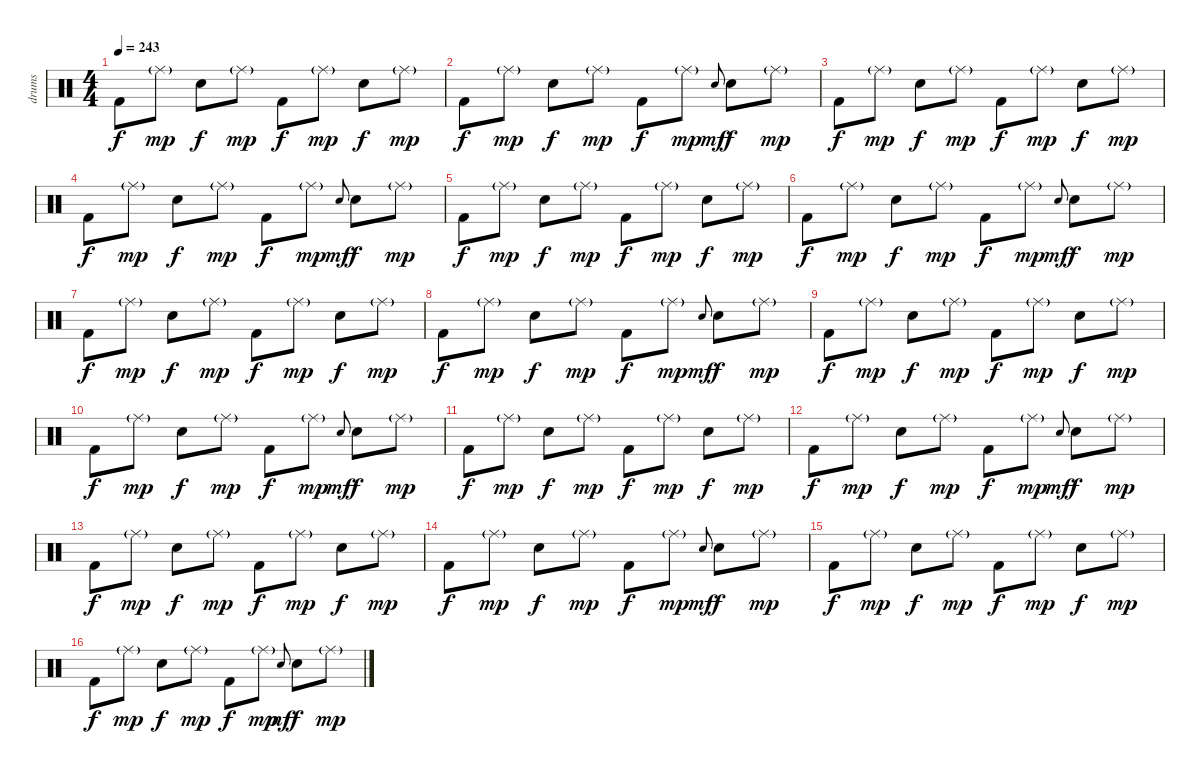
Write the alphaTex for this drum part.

\track ("drums" "drums") {instrument percussion}
\staff {score}
\articulation defaults
\ts (4 4)
\tempo 243
\clef neutral
\ks c "Kick (hit) 2".8{dy f} "Ride (middle)"{g}.8{dy mp} "Electric Snare (hit)".8{dy f} "Ride (middle)"{g}.8{dy mp} "Kick (hit) 2".8{dy f} "Ride (middle)"{g}.8{dy mp} "Electric Snare (hit)".8{dy f} "Ride (middle)"{g}.8{dy mp}
|
"Kick (hit) 2".8{dy f} "Ride (middle)"{g}.8{dy mp} "Electric Snare (hit)".8{dy f} "Ride (middle)"{g}.8{dy mp} "Kick (hit) 2".8{dy f} "Ride (middle)"{g}.8{dy mp} "Electric Snare (hit)"{x}.8{gr onbeat dy mf} "Electric Snare (hit)".8{dy f} "Ride (middle)"{g}.8{dy mp} |
"Kick (hit) 2".8{dy f} "Ride (middle)"{g}.8{dy mp} "Electric Snare (hit)".8{dy f} "Ride (middle)"{g}.8{dy mp} "Kick (hit) 2".8{dy f} "Ride (middle)"{g}.8{dy mp} "Electric Snare (hit)".8{dy f} "Ride (middle)"{g}.8{dy mp} |
"Kick (hit) 2".8{dy f} "Ride (middle)"{g}.8{dy mp} "Electric Snare (hit)".8{dy f} "Ride (middle)"{g}.8{dy mp} "Kick (hit) 2".8{dy f} "Ride (middle)"{g}.8{dy mp} "Electric Snare (hit)"{x}.8{gr onbeat dy mf} "Electric Snare (hit)".8{dy f} "Ride (middle)"{g}.8{dy mp} |
"Kick (hit) 2".8{dy f} "Ride (middle)"{g}.8{dy mp} "Electric Snare (hit)".8{dy f} "Ride (middle)"{g}.8{dy mp} "Kick (hit) 2".8{dy f} "Ride (middle)"{g}.8{dy mp} "Electric Snare (hit)".8{dy f} "Ride (middle)"{g}.8{dy mp} |
"Kick (hit) 2".8{dy f} "Ride (middle)"{g}.8{dy mp} "Electric Snare (hit)".8{dy f} "Ride (middle)"{g}.8{dy mp} "Kick (hit) 2".8{dy f} "Ride (middle)"{g}.8{dy mp} "Electric Snare (hit)"{x}.8{gr onbeat dy mf} "Electric Snare (hit)".8{dy f} "Ride (middle)"{g}.8{dy mp} |
"Kick (hit) 2".8{dy f} "Ride (middle)"{g}.8{dy mp} "Electric Snare (hit)".8{dy f} "Ride (middle)"{g}.8{dy mp} "Kick (hit) 2".8{dy f} "Ride (middle)"{g}.8{dy mp} "Electric Snare (hit)".8{dy f} "Ride (middle)"{g}.8{dy mp} |
"Kick (hit) 2".8{dy f} "Ride (middle)"{g}.8{dy mp} "Electric Snare (hit)".8{dy f} "Ride (middle)"{g}.8{dy mp} "Kick (hit) 2".8{dy f} "Ride (middle)"{g}.8{dy mp} "Electric Snare (hit)"{x}.8{gr onbeat dy mf} "Electric Snare (hit)".8{dy f} "Ride (middle)"{g}.8{dy mp} |
"Kick (hit) 2".8{dy f} "Ride (middle)"{g}.8{dy mp} "Electric Snare (hit)".8{dy f} "Ride (middle)"{g}.8{dy mp} "Kick (hit) 2".8{dy f} "Ride (middle)"{g}.8{dy mp} "Electric Snare (hit)".8{dy f} "Ride (middle)"{g}.8{dy mp} |
"Kick (hit) 2".8{dy f} "Ride (middle)"{g}.8{dy mp} "Electric Snare (hit)".8{dy f} "Ride (middle)"{g}.8{dy mp} "Kick (hit) 2".8{dy f} "Ride (middle)"{g}.8{dy mp} "Electric Snare (hit)"{x}.8{gr onbeat dy mf} "Electric Snare (hit)".8{dy f} "Ride (middle)"{g}.8{dy mp} |
"Kick (hit) 2".8{dy f} "Ride (middle)"{g}.8{dy mp} "Electric Snare (hit)".8{dy f} "Ride (middle)"{g}.8{dy mp} "Kick (hit) 2".8{dy f} "Ride (middle)"{g}.8{dy mp} "Electric Snare (hit)".8{dy f} "Ride (middle)"{g}.8{dy mp} |
"Kick (hit) 2".8{dy f} "Ride (middle)"{g}.8{dy mp} "Electric Snare (hit)".8{dy f} "Ride (middle)"{g}.8{dy mp} "Kick (hit) 2".8{dy f} "Ride (middle)"{g}.8{dy mp} "Electric Snare (hit)"{x}.8{gr onbeat dy mf} "Electric Snare (hit)".8{dy f} "Ride (middle)"{g}.8{dy mp} |
"Kick (hit) 2".8{dy f} "Ride (middle)"{g}.8{dy mp} "Electric Snare (hit)".8{dy f} "Ride (middle)"{g}.8{dy mp} "Kick (hit) 2".8{dy f} "Ride (middle)"{g}.8{dy mp} "Electric Snare (hit)".8{dy f} "Ride (middle)"{g}.8{dy mp} |
"Kick (hit) 2".8{dy f} "Ride (middle)"{g}.8{dy mp} "Electric Snare (hit)".8{dy f} "Ride (middle)"{g}.8{dy mp} "Kick (hit) 2".8{dy f} "Ride (middle)"{g}.8{dy mp} "Electric Snare (hit)"{x}.8{gr onbeat dy mf} "Electric Snare (hit)".8{dy f} "Ride (middle)"{g}.8{dy mp} |
"Kick (hit) 2".8{dy f} "Ride (middle)"{g}.8{dy mp} "Electric Snare (hit)".8{dy f} "Ride (middle)"{g}.8{dy mp} "Kick (hit) 2".8{dy f} "Ride (middle)"{g}.8{dy mp} "Electric Snare (hit)".8{dy f} "Ride (middle)"{g}.8{dy mp} |
"Kick (hit) 2".8{dy f} "Ride (middle)"{g}.8{dy mp} "Electric Snare (hit)".8{dy f} "Ride (middle)"{g}.8{dy mp} "Kick (hit) 2".8{dy f} "Ride (middle)"{g}.8{dy mp} "Electric Snare (hit)"{x}.8{gr onbeat dy mf} "Electric Snare (hit)".8{dy f} "Ride (middle)"{g}.8{dy mp}
